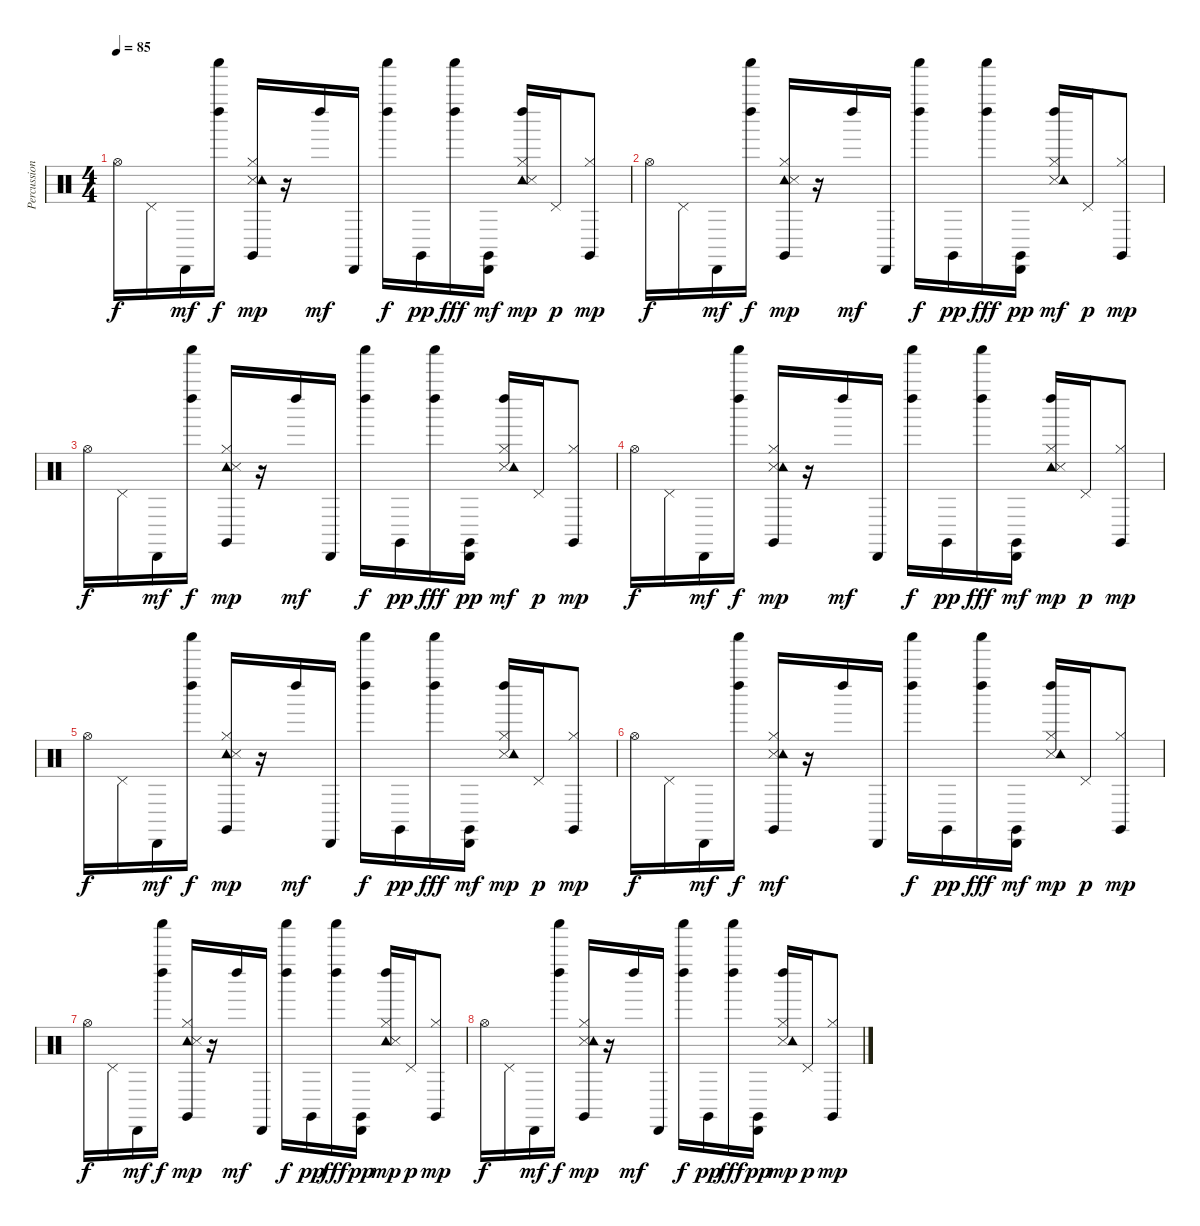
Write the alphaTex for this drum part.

\track ("Percussion" "Percussion") {instrument percussion}
\staff {score}
\articulation defaults
\ts (4 4)
\tempo 85
\clef neutral
\ks c "Hi-Hat (open)".16{dy f} "Pedal Hi-Hat (hit)".16 "Cabasa (hit)".16{dy mf}
("Shaker (hit)" "Left Maraca (hit)").16{dy f} ("Snare (side stick) 3" "Hi-Hat (closed)" "Tambourine (hit)" "Claves (hit)").16{dy mp} r.16 "Left Maraca (hit)".16{dy mf} "Cabasa (hit)".16 ("Left Maraca (hit)" "Shaker (hit)").16{dy f} "Claves (hit)".16{dy pp} ("Left Maraca (hit)" "Shaker (hit)").16{dy fff} ("Claves (hit)" "Cabasa (hit)").16{dy mf} ("Hi-Hat (closed)" "Tambourine (hit)" "Left Maraca (hit)" "Snare (side stick) 3").16{dy mp} "Pedal Hi-Hat (hit)".16{dy p} ("Claves (hit)" "Hi-Hat (closed)").8{dy mp} |
"Hi-Hat (open)".16{dy f} "Pedal Hi-Hat (hit)".16 "Cabasa (hit)".16{dy mf} ("Left Maraca (hit)" "Shaker (hit)").16{dy f} ("Claves (hit)" "Tambourine (hit)" "Hi-Hat (closed)" "Snare (side stick) 3").16{dy mp} r.16 "Left Maraca (hit)".16{dy mf} "Cabasa (hit)".16 ("Shaker (hit)" "Left Maraca (hit)").16{dy f} "Claves (hit)".16{dy pp} ("Left Maraca (hit)" "Shaker (hit)").16{dy fff} ("Cabasa (hit)" "Claves (hit)").16{dy pp} ("Left Maraca (hit)" "Hi-Hat (closed)" "Snare (side stick) 3" "Tambourine (hit)").16{dy mf} "Pedal Hi-Hat (hit)".16{dy p} ("Claves (hit)" "Hi-Hat (closed)").8{dy mp} |
"Hi-Hat (open)".16{dy f} "Pedal Hi-Hat (hit)".16 "Cabasa (hit)".16{dy mf} ("Shaker (hit)" "Left Maraca (hit)").16{dy f} ("Hi-Hat (closed)" "Tambourine (hit)" "Claves (hit)" "Snare (side stick) 3").16{dy mp} r.16 "Left Maraca (hit)".16{dy mf} "Cabasa (hit)".16 ("Shaker (hit)" "Left Maraca (hit)").16{dy f} "Claves (hit)".16{dy pp} ("Shaker (hit)" "Left Maraca (hit)").16{dy fff} ("Cabasa (hit)" "Claves (hit)").16{dy pp} ("Snare (side stick) 3" "Left Maraca (hit)" "Hi-Hat (closed)" "Tambourine (hit)").16{dy mf} "Pedal Hi-Hat (hit)".16{dy p} ("Claves (hit)" "Hi-Hat (closed)").8{dy mp} |
"Hi-Hat (open)".16{dy f} "Pedal Hi-Hat (hit)".16 "Cabasa (hit)".16{dy mf} ("Left Maraca (hit)" "Shaker (hit)").16{dy f} ("Snare (side stick) 3" "Tambourine (hit)" "Hi-Hat (closed)" "Claves (hit)").16{dy mp} r.16 "Left Maraca (hit)".16{dy mf} "Cabasa (hit)".16 ("Shaker (hit)" "Left Maraca (hit)").16{dy f} "Claves (hit)".16{dy pp} ("Shaker (hit)" "Left Maraca (hit)").16{dy fff} ("Claves (hit)" "Cabasa (hit)").16{dy mf} ("Tambourine (hit)" "Snare (side stick) 3" "Left Maraca (hit)" "Hi-Hat (closed)").16{dy mp} "Pedal Hi-Hat (hit)".16{dy p} ("Hi-Hat (closed)" "Claves (hit)").8{dy mp} |
"Hi-Hat (open)".16{dy f} "Pedal Hi-Hat (hit)".16 "Cabasa (hit)".16{dy mf} ("Shaker (hit)" "Left Maraca (hit)").16{dy f} ("Hi-Hat (closed)" "Tambourine (hit)" "Snare (side stick) 3" "Claves (hit)").16{dy mp} r.16 "Left Maraca (hit)".16{dy mf} "Cabasa (hit)".16 ("Left Maraca (hit)" "Shaker (hit)").16{dy f} "Claves (hit)".16{dy pp} ("Left Maraca (hit)" "Shaker (hit)").16{dy fff} ("Claves (hit)" "Cabasa (hit)").16{dy mf} ("Snare (side stick) 3" "Tambourine (hit)" "Hi-Hat (closed)" "Left Maraca (hit)").16{dy mp} "Pedal Hi-Hat (hit)".16{dy p} ("Hi-Hat (closed)" "Claves (hit)").8{dy mp} |
"Hi-Hat (open)".16{dy f} "Pedal Hi-Hat (hit)".16 "Cabasa (hit)".16{dy mf} ("Shaker (hit)" "Left Maraca (hit)").16{dy f} ("Hi-Hat (closed)" "Snare (side stick) 3" "Claves (hit)" "Tambourine (hit)").16{dy mf} r.16 "Left Maraca (hit)".16 "Cabasa (hit)".16 ("Shaker (hit)" "Left Maraca (hit)").16{dy f} "Claves (hit)".16{dy pp} ("Shaker (hit)" "Left Maraca (hit)").16{dy fff} ("Claves (hit)" "Cabasa (hit)").16{dy mf} ("Snare (side stick) 3" "Hi-Hat (closed)" "Tambourine (hit)" "Left Maraca (hit)").16{dy mp} "Pedal Hi-Hat (hit)".16{dy p} ("Hi-Hat (closed)" "Claves (hit)").8{dy mp} |
"Hi-Hat (open)".16{dy f} "Pedal Hi-Hat (hit)".16 "Cabasa (hit)".16{dy mf} ("Left Maraca (hit)" "Shaker (hit)").16{dy f} ("Tambourine (hit)" "Claves (hit)" "Snare (side stick) 3" "Hi-Hat (closed)").16{dy mp} r.16 "Left Maraca (hit)".16{dy mf} "Cabasa (hit)".16 ("Shaker (hit)" "Left Maraca (hit)").16{dy f} "Claves (hit)".16{dy pp} ("Shaker (hit)" "Left Maraca (hit)").16{dy fff} ("Cabasa (hit)" "Claves (hit)").16{dy pp} ("Hi-Hat (closed)" "Tambourine (hit)" "Snare (side stick) 3" "Left Maraca (hit)").16{dy mp} "Pedal Hi-Hat (hit)".16{dy p} ("Hi-Hat (closed)" "Claves (hit)").8{dy mp} |
"Hi-Hat (open)".16{dy f} "Pedal Hi-Hat (hit)".16 "Cabasa (hit)".16{dy mf} ("Left Maraca (hit)" "Shaker (hit)").16{dy f} ("Snare (side stick) 3" "Claves (hit)" "Tambourine (hit)" "Hi-Hat (closed)").16{dy mp} r.16 "Left Maraca (hit)".16{dy mf} "Cabasa (hit)".16 ("Shaker (hit)" "Left Maraca (hit)").16{dy f} "Claves (hit)".16{dy pp} ("Shaker (hit)" "Left Maraca (hit)").16{dy fff} ("Cabasa (hit)" "Claves (hit)").16{dy pp} ("Snare (side stick) 3" "Hi-Hat (closed)" "Tambourine (hit)" "Left Maraca (hit)").16{dy mp} "Pedal Hi-Hat (hit)".16{dy p} ("Hi-Hat (closed)" "Claves (hit)").8{dy mp}
